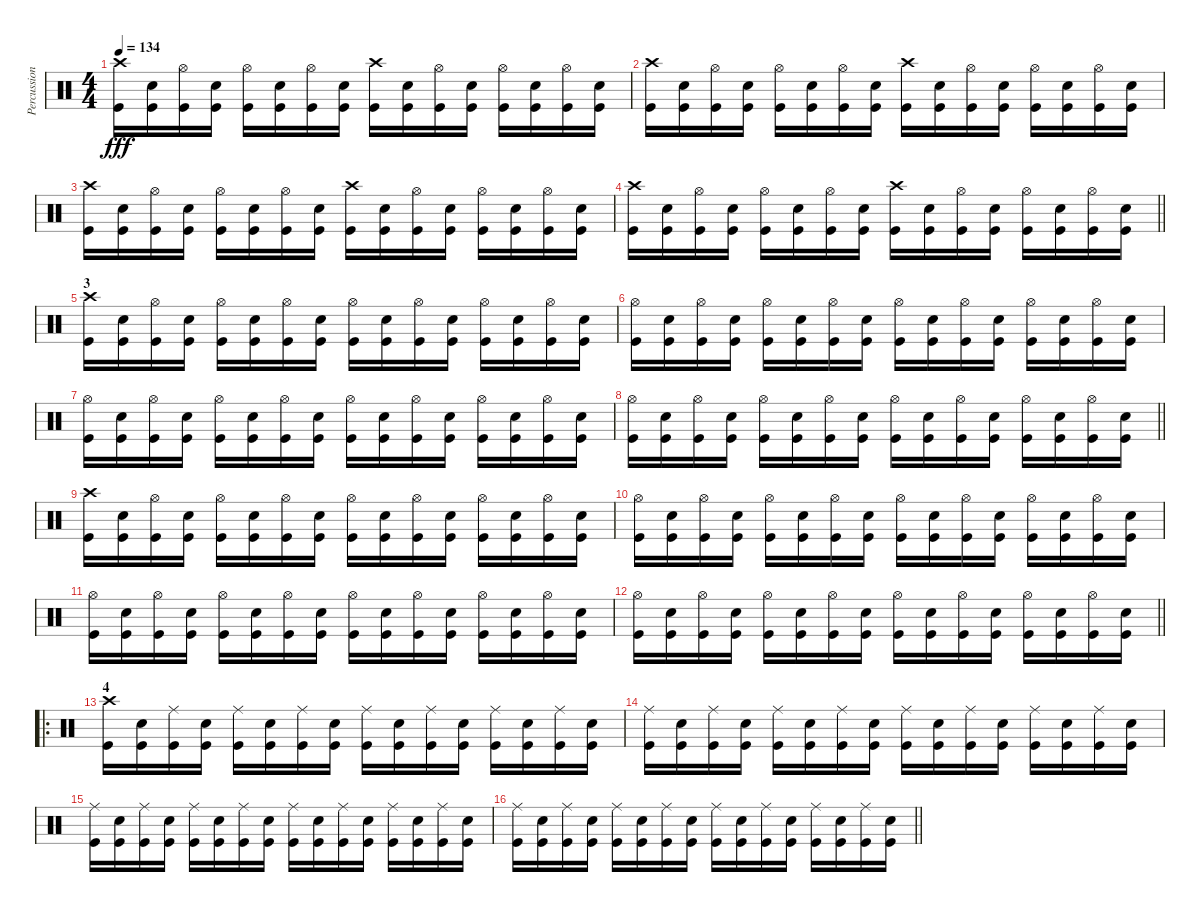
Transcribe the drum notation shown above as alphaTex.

\track ("Percussion" "Percussion") {instrument percussion}
\staff {score}
\articulation defaults
\ts (4 4)
\tempo 134
\clef neutral
\ks c
("Crash high (hit)" "Kick (hit)").16{dy fff} ("Snare (hit) 2" "Kick (hit)").16 ("Hi-Hat (open)" "Kick (hit)").16 ("Snare (hit) 2" "Kick (hit)").16 ("Hi-Hat (open)" "Kick (hit)").16 ("Snare (hit) 2" "Kick (hit)").16 ("Hi-Hat (open)" "Kick (hit)").16 ("Snare (hit) 2" "Kick (hit)").16 ("Crash high (hit)" "Kick (hit)").16 ("Snare (hit) 2" "Kick (hit)").16 ("Hi-Hat (open)" "Kick (hit)").16 ("Snare (hit) 2" "Kick (hit)").16 ("Hi-Hat (open)" "Kick (hit)").16 ("Snare (hit) 2" "Kick (hit)").16 ("Hi-Hat (open)" "Kick (hit)").16 ("Snare (hit) 2" "Kick (hit)").16 |
("Crash high (hit)" "Kick (hit)").16 ("Snare (hit) 2" "Kick (hit)").16 ("Hi-Hat (open)" "Kick (hit)").16 ("Snare (hit) 2" "Kick (hit)").16 ("Hi-Hat (open)" "Kick (hit)").16 ("Snare (hit) 2" "Kick (hit)").16 ("Hi-Hat (open)" "Kick (hit)").16 ("Snare (hit) 2" "Kick (hit)").16 ("Crash high (hit)" "Kick (hit)").16 ("Snare (hit) 2" "Kick (hit)").16 ("Hi-Hat (open)" "Kick (hit)").16 ("Snare (hit) 2" "Kick (hit)").16 ("Hi-Hat (open)" "Kick (hit)").16 ("Snare (hit) 2" "Kick (hit)").16 ("Hi-Hat (open)" "Kick (hit)").16 ("Snare (hit) 2" "Kick (hit)").16 |
("Crash high (hit)" "Kick (hit)").16 ("Snare (hit) 2" "Kick (hit)").16 ("Hi-Hat (open)" "Kick (hit)").16 ("Snare (hit) 2" "Kick (hit)").16 ("Hi-Hat (open)" "Kick (hit)").16 ("Snare (hit) 2" "Kick (hit)").16 ("Hi-Hat (open)" "Kick (hit)").16 ("Snare (hit) 2" "Kick (hit)").16 ("Crash high (hit)" "Kick (hit)").16 ("Snare (hit) 2" "Kick (hit)").16 ("Hi-Hat (open)" "Kick (hit)").16 ("Snare (hit) 2" "Kick (hit)").16 ("Hi-Hat (open)" "Kick (hit)").16 ("Snare (hit) 2" "Kick (hit)").16 ("Hi-Hat (open)" "Kick (hit)").16 ("Snare (hit) 2" "Kick (hit)").16 |
\barLineRight lightlight
("Crash high (hit)" "Kick (hit)").16 ("Snare (hit) 2" "Kick (hit)").16 ("Hi-Hat (open)" "Kick (hit)").16 ("Snare (hit) 2" "Kick (hit)").16 ("Hi-Hat (open)" "Kick (hit)").16 ("Snare (hit) 2" "Kick (hit)").16 ("Hi-Hat (open)" "Kick (hit)").16 ("Snare (hit) 2" "Kick (hit)").16 ("Crash high (hit)" "Kick (hit)").16 ("Snare (hit) 2" "Kick (hit)").16 ("Hi-Hat (open)" "Kick (hit)").16 ("Snare (hit) 2" "Kick (hit)").16 ("Hi-Hat (open)" "Kick (hit)").16 ("Snare (hit) 2" "Kick (hit)").16 ("Hi-Hat (open)" "Kick (hit)").16 ("Snare (hit) 2" "Kick (hit)").16 |
\section ("" "3")
("Crash high (hit)" "Kick (hit)").16 ("Snare (hit) 2" "Kick (hit)").16 ("Hi-Hat (open)" "Kick (hit)").16 ("Snare (hit) 2" "Kick (hit)").16 ("Hi-Hat (open)" "Kick (hit)").16 ("Snare (hit) 2" "Kick (hit)").16 ("Hi-Hat (open)" "Kick (hit)").16 ("Snare (hit) 2" "Kick (hit)").16 ("Hi-Hat (open)" "Kick (hit)").16 ("Snare (hit) 2" "Kick (hit)").16 ("Hi-Hat (open)" "Kick (hit)").16 ("Snare (hit) 2" "Kick (hit)").16 ("Hi-Hat (open)" "Kick (hit)").16 ("Snare (hit) 2" "Kick (hit)").16 ("Hi-Hat (open)" "Kick (hit)").16 ("Snare (hit) 2" "Kick (hit)").16 |
("Hi-Hat (open)" "Kick (hit)").16 ("Snare (hit) 2" "Kick (hit)").16 ("Hi-Hat (open)" "Kick (hit)").16 ("Snare (hit) 2" "Kick (hit)").16 ("Hi-Hat (open)" "Kick (hit)").16 ("Snare (hit) 2" "Kick (hit)").16 ("Hi-Hat (open)" "Kick (hit)").16 ("Snare (hit) 2" "Kick (hit)").16 ("Hi-Hat (open)" "Kick (hit)").16 ("Snare (hit) 2" "Kick (hit)").16 ("Hi-Hat (open)" "Kick (hit)").16 ("Snare (hit) 2" "Kick (hit)").16 ("Hi-Hat (open)" "Kick (hit)").16 ("Snare (hit) 2" "Kick (hit)").16 ("Hi-Hat (open)" "Kick (hit)").16 ("Snare (hit) 2" "Kick (hit)").16 |
("Hi-Hat (open)" "Kick (hit)").16 ("Snare (hit) 2" "Kick (hit)").16 ("Hi-Hat (open)" "Kick (hit)").16 ("Snare (hit) 2" "Kick (hit)").16 ("Hi-Hat (open)" "Kick (hit)").16 ("Snare (hit) 2" "Kick (hit)").16 ("Hi-Hat (open)" "Kick (hit)").16 ("Snare (hit) 2" "Kick (hit)").16 ("Hi-Hat (open)" "Kick (hit)").16 ("Snare (hit) 2" "Kick (hit)").16 ("Hi-Hat (open)" "Kick (hit)").16 ("Snare (hit) 2" "Kick (hit)").16 ("Hi-Hat (open)" "Kick (hit)").16 ("Snare (hit) 2" "Kick (hit)").16 ("Hi-Hat (open)" "Kick (hit)").16 ("Snare (hit) 2" "Kick (hit)").16 |
\barLineRight lightlight
("Hi-Hat (open)" "Kick (hit)").16 ("Snare (hit) 2" "Kick (hit)").16 ("Hi-Hat (open)" "Kick (hit)").16 ("Snare (hit) 2" "Kick (hit)").16 ("Hi-Hat (open)" "Kick (hit)").16 ("Snare (hit) 2" "Kick (hit)").16 ("Hi-Hat (open)" "Kick (hit)").16 ("Snare (hit) 2" "Kick (hit)").16 ("Hi-Hat (open)" "Kick (hit)").16 ("Snare (hit) 2" "Kick (hit)").16 ("Hi-Hat (open)" "Kick (hit)").16 ("Snare (hit) 2" "Kick (hit)").16 ("Hi-Hat (open)" "Kick (hit)").16 ("Snare (hit) 2" "Kick (hit)").16 ("Hi-Hat (open)" "Kick (hit)").16 ("Snare (hit) 2" "Kick (hit)").16 |
("Crash high (hit)" "Kick (hit)").16 ("Snare (hit) 2" "Kick (hit)").16 ("Hi-Hat (open)" "Kick (hit)").16 ("Snare (hit) 2" "Kick (hit)").16 ("Hi-Hat (open)" "Kick (hit)").16 ("Snare (hit) 2" "Kick (hit)").16 ("Hi-Hat (open)" "Kick (hit)").16 ("Snare (hit) 2" "Kick (hit)").16 ("Hi-Hat (open)" "Kick (hit)").16 ("Snare (hit) 2" "Kick (hit)").16 ("Hi-Hat (open)" "Kick (hit)").16 ("Snare (hit) 2" "Kick (hit)").16 ("Hi-Hat (open)" "Kick (hit)").16 ("Snare (hit) 2" "Kick (hit)").16 ("Hi-Hat (open)" "Kick (hit)").16 ("Snare (hit) 2" "Kick (hit)").16 |
("Hi-Hat (open)" "Kick (hit)").16 ("Snare (hit) 2" "Kick (hit)").16 ("Hi-Hat (open)" "Kick (hit)").16 ("Snare (hit) 2" "Kick (hit)").16 ("Hi-Hat (open)" "Kick (hit)").16 ("Snare (hit) 2" "Kick (hit)").16 ("Hi-Hat (open)" "Kick (hit)").16 ("Snare (hit) 2" "Kick (hit)").16 ("Hi-Hat (open)" "Kick (hit)").16 ("Snare (hit) 2" "Kick (hit)").16 ("Hi-Hat (open)" "Kick (hit)").16 ("Snare (hit) 2" "Kick (hit)").16 ("Hi-Hat (open)" "Kick (hit)").16 ("Snare (hit) 2" "Kick (hit)").16 ("Hi-Hat (open)" "Kick (hit)").16 ("Snare (hit) 2" "Kick (hit)").16 |
("Hi-Hat (open)" "Kick (hit)").16 ("Snare (hit) 2" "Kick (hit)").16 ("Hi-Hat (open)" "Kick (hit)").16 ("Snare (hit) 2" "Kick (hit)").16 ("Hi-Hat (open)" "Kick (hit)").16 ("Snare (hit) 2" "Kick (hit)").16 ("Hi-Hat (open)" "Kick (hit)").16 ("Snare (hit) 2" "Kick (hit)").16 ("Hi-Hat (open)" "Kick (hit)").16 ("Snare (hit) 2" "Kick (hit)").16 ("Hi-Hat (open)" "Kick (hit)").16 ("Snare (hit) 2" "Kick (hit)").16 ("Hi-Hat (open)" "Kick (hit)").16 ("Snare (hit) 2" "Kick (hit)").16 ("Hi-Hat (open)" "Kick (hit)").16 ("Snare (hit) 2" "Kick (hit)").16 |
\barLineRight lightlight
("Hi-Hat (open)" "Kick (hit)").16 ("Snare (hit) 2" "Kick (hit)").16 ("Hi-Hat (open)" "Kick (hit)").16 ("Snare (hit) 2" "Kick (hit)").16 ("Hi-Hat (open)" "Kick (hit)").16 ("Snare (hit) 2" "Kick (hit)").16 ("Hi-Hat (open)" "Kick (hit)").16 ("Snare (hit) 2" "Kick (hit)").16 ("Hi-Hat (open)" "Kick (hit)").16 ("Snare (hit) 2" "Kick (hit)").16 ("Hi-Hat (open)" "Kick (hit)").16 ("Snare (hit) 2" "Kick (hit)").16 ("Hi-Hat (open)" "Kick (hit)").16 ("Snare (hit) 2" "Kick (hit)").16 ("Hi-Hat (open)" "Kick (hit)").16 ("Snare (hit) 2" "Kick (hit)").16 |
\ro
\section ("" "4")
("Crash high (hit)" "Kick (hit)").16 ("Snare (hit) 2" "Kick (hit)").16 ("Ride (middle)" "Kick (hit)").16 ("Snare (hit) 2" "Kick (hit)").16 ("Ride (middle)" "Kick (hit)").16 ("Snare (hit) 2" "Kick (hit)").16 ("Ride (middle)" "Kick (hit)").16 ("Snare (hit) 2" "Kick (hit)").16 ("Ride (middle)" "Kick (hit)").16 ("Snare (hit) 2" "Kick (hit)").16 ("Ride (middle)" "Kick (hit)").16 ("Snare (hit) 2" "Kick (hit)").16 ("Ride (middle)" "Kick (hit)").16 ("Snare (hit) 2" "Kick (hit)").16 ("Ride (middle)" "Kick (hit)").16 ("Snare (hit) 2" "Kick (hit)").16 |
("Ride (middle)" "Kick (hit)").16 ("Snare (hit) 2" "Kick (hit)").16 ("Ride (middle)" "Kick (hit)").16 ("Snare (hit) 2" "Kick (hit)").16 ("Ride (middle)" "Kick (hit)").16 ("Snare (hit) 2" "Kick (hit)").16 ("Ride (middle)" "Kick (hit)").16 ("Snare (hit) 2" "Kick (hit)").16 ("Ride (middle)" "Kick (hit)").16 ("Snare (hit) 2" "Kick (hit)").16 ("Ride (middle)" "Kick (hit)").16 ("Snare (hit) 2" "Kick (hit)").16 ("Ride (middle)" "Kick (hit)").16 ("Snare (hit) 2" "Kick (hit)").16 ("Ride (middle)" "Kick (hit)").16 ("Snare (hit) 2" "Kick (hit)").16 |
("Ride (middle)" "Kick (hit)").16 ("Snare (hit) 2" "Kick (hit)").16 ("Ride (middle)" "Kick (hit)").16 ("Snare (hit) 2" "Kick (hit)").16 ("Ride (middle)" "Kick (hit)").16 ("Snare (hit) 2" "Kick (hit)").16 ("Ride (middle)" "Kick (hit)").16 ("Snare (hit) 2" "Kick (hit)").16 ("Ride (middle)" "Kick (hit)").16 ("Snare (hit) 2" "Kick (hit)").16 ("Ride (middle)" "Kick (hit)").16 ("Snare (hit) 2" "Kick (hit)").16 ("Ride (middle)" "Kick (hit)").16 ("Snare (hit) 2" "Kick (hit)").16 ("Ride (middle)" "Kick (hit)").16 ("Snare (hit) 2" "Kick (hit)").16 |
\barLineRight lightlight
("Ride (middle)" "Kick (hit)").16 ("Snare (hit) 2" "Kick (hit)").16 ("Ride (middle)" "Kick (hit)").16 ("Snare (hit) 2" "Kick (hit)").16 ("Ride (middle)" "Kick (hit)").16 ("Snare (hit) 2" "Kick (hit)").16 ("Ride (middle)" "Kick (hit)").16 ("Snare (hit) 2" "Kick (hit)").16 ("Ride (middle)" "Kick (hit)").16 ("Snare (hit) 2" "Kick (hit)").16 ("Ride (middle)" "Kick (hit)").16 ("Snare (hit) 2" "Kick (hit)").16 ("Ride (middle)" "Kick (hit)").16 ("Snare (hit) 2" "Kick (hit)").16 ("Ride (middle)" "Kick (hit)").16 ("Snare (hit) 2" "Kick (hit)").16
